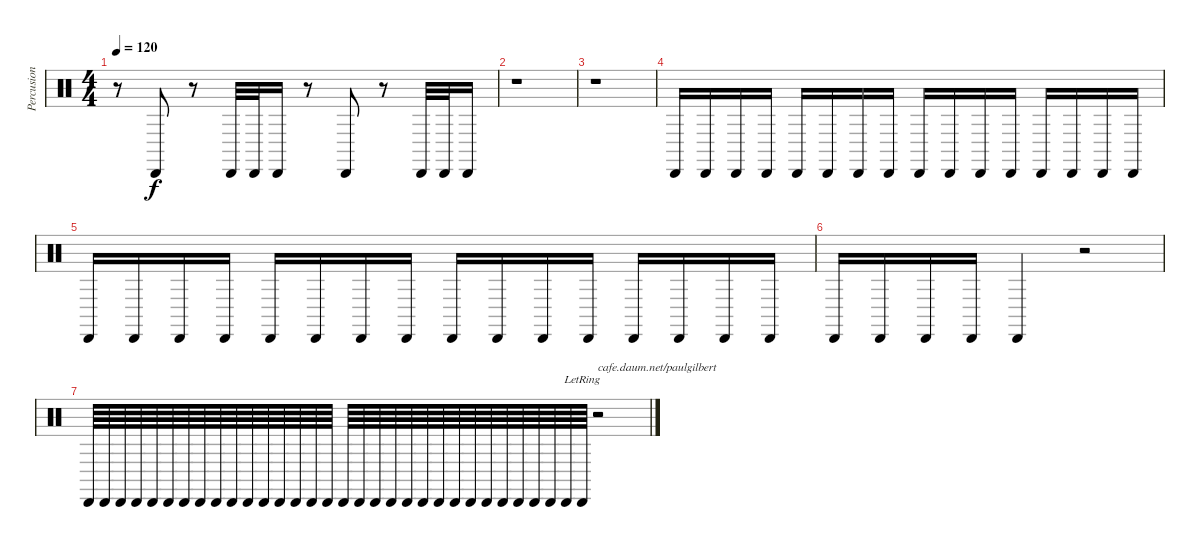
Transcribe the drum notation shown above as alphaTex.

\track ("Percusion" "Percusion") {instrument percussion}
\staff {score}
\articulation defaults
\ts (4 4)
\tempo 120
\clef neutral
\ks c
r.8{dy f} "Cabasa (hit)".8 r.8 "Cabasa (hit)".32 "Cabasa (hit)".32 "Cabasa (hit)".16 r.8 "Cabasa (hit)".8 r.8 "Cabasa (hit)".32 "Cabasa (hit)".32 "Cabasa (hit)".16 |
r.1 |
r.1 |
"Cabasa (hit)".16 "Cabasa (hit)".16 "Cabasa (hit)".16 "Cabasa (hit)".16 "Cabasa (hit)".16 "Cabasa (hit)".16 "Cabasa (hit)".16 "Cabasa (hit)".16 "Cabasa (hit)".16 "Cabasa (hit)".16 "Cabasa (hit)".16 "Cabasa (hit)".16 "Cabasa (hit)".16 "Cabasa (hit)".16 "Cabasa (hit)".16 "Cabasa (hit)".16 |
"Cabasa (hit)".16 "Cabasa (hit)".16 "Cabasa (hit)".16 "Cabasa (hit)".16 "Cabasa (hit)".16 "Cabasa (hit)".16 "Cabasa (hit)".16 "Cabasa (hit)".16 "Cabasa (hit)".16 "Cabasa (hit)".16 "Cabasa (hit)".16 "Cabasa (hit)".16 "Cabasa (hit)".16 "Cabasa (hit)".16 "Cabasa (hit)".16 "Cabasa (hit)".16 |
"Cabasa (hit)".16 "Cabasa (hit)".16 "Cabasa (hit)".16 "Cabasa (hit)".16 "Cabasa (hit)".4 r.2 |
"Cabasa (hit)".64 "Cabasa (hit)".64 "Cabasa (hit)".64 "Cabasa (hit)".64 "Cabasa (hit)".64 "Cabasa (hit)".64 "Cabasa (hit)".64 "Cabasa (hit)".64 "Cabasa (hit)".64 "Cabasa (hit)".64 "Cabasa (hit)".64 "Cabasa (hit)".64 "Cabasa (hit)".64 "Cabasa (hit)".64 "Cabasa (hit)".64 "Cabasa (hit)".64 "Cabasa (hit)".64 "Cabasa (hit)".64 "Cabasa (hit)".64 "Cabasa (hit)".64 "Cabasa (hit)".64 "Cabasa (hit)".64 "Cabasa (hit)".64 "Cabasa (hit)".64 "Cabasa (hit)".64 "Cabasa (hit)".64 "Cabasa (hit)".64 "Cabasa (hit)".64 "Cabasa (hit)".64 "Cabasa (hit)".64 "Cabasa (hit)".64 "Cabasa (hit)"{lr}.64 r.2{txt "cafe.daum.net/paulgilbert"}
